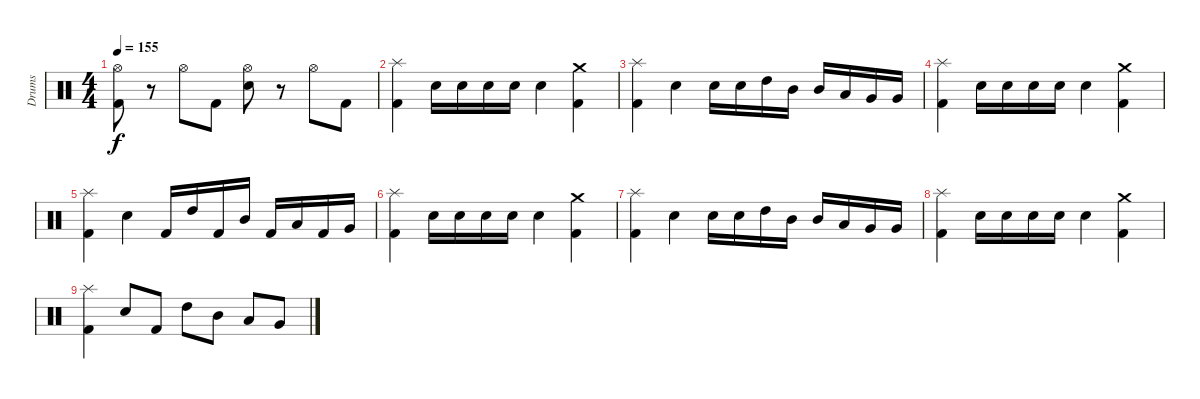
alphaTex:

\track ("Drums" "Drums") {instrument percussion}
\staff {score}
\articulation defaults
\ts (4 4)
\tempo 155
\clef neutral
\ks c
("Hi-Hat (open)" "Kick (hit) 2").8{dy f} r.8 "Hi-Hat (open)".8 "Kick (hit) 2".8 ("Snare (hit) 2" "Hi-Hat (open)").8 r.8 "Hi-Hat (open)".8 "Kick (hit) 2".8 |
("Splash (hit)" "Kick (hit) 2").4 "Snare (hit) 2".16 "Snare (hit) 2".16 "Snare (hit) 2".16 "Snare (hit) 2".16 "Snare (hit) 2".4 ("Crash medium (hit)" "Kick (hit) 2").4 |
("Splash (hit)" "Kick (hit) 2").4 "Snare (hit) 2".4 "Snare (hit) 2".16 "Snare (hit) 2".16 "High Tom (hit)".16 "Mid Tom (hit)".16 "Mid Tom (hit)".16 "Low Tom (hit)".16 "Very Low Tom (hit)".16 "Very Low Tom (hit)".16 |
("Splash (hit)" "Kick (hit) 2").4 "Snare (hit) 2".16 "Snare (hit) 2".16 "Snare (hit) 2".16 "Snare (hit) 2".16 "Snare (hit) 2".4 ("Crash medium (hit)" "Kick (hit) 2").4 |
("Splash (hit)" "Kick (hit) 2").4 "Snare (hit) 2".4 "Kick (hit) 2".16 "High Tom (hit)".16 "Kick (hit) 2".16 "Mid Tom (hit)".16 "Kick (hit) 2".16 "Low Tom (hit)".16 "Kick (hit) 2".16 "Very Low Tom (hit)".16 |
("Splash (hit)" "Kick (hit) 2").4 "Snare (hit) 2".16 "Snare (hit) 2".16 "Snare (hit) 2".16 "Snare (hit) 2".16 "Snare (hit) 2".4 ("Crash medium (hit)" "Kick (hit) 2").4 |
("Splash (hit)" "Kick (hit) 2").4 "Snare (hit) 2".4 "Snare (hit) 2".16 "Snare (hit) 2".16 "High Tom (hit)".16 "Mid Tom (hit)".16 "Mid Tom (hit)".16 "Low Tom (hit)".16 "Very Low Tom (hit)".16 "Very Low Tom (hit)".16 |
("Splash (hit)" "Kick (hit) 2").4 "Snare (hit) 2".16 "Snare (hit) 2".16 "Snare (hit) 2".16 "Snare (hit) 2".16 "Snare (hit) 2".4 ("Crash medium (hit)" "Kick (hit) 2").4 |
("Splash (hit)" "Kick (hit) 2").4 "Snare (hit) 2".8 "Kick (hit) 2".8 "High Tom (hit)".8 "Mid Tom (hit)".8 "Low Tom (hit)".8 "Very Low Tom (hit)".8
